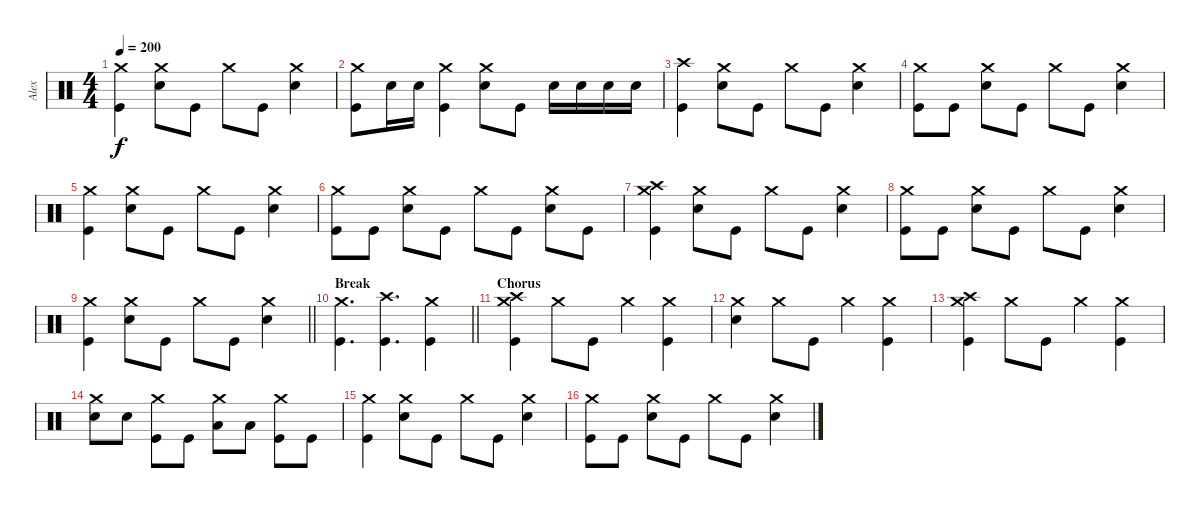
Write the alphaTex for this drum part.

\track ("Alex" "Alex") {instrument percussion}
\staff {score}
\articulation defaults
\ts (4 4)
\tempo 200
\clef neutral
\ks c
("Crash medium (hit)" "Kick (hit)").4{dy f} ("Crash medium (hit)" "Snare (hit) 2").8 "Kick (hit)".8 "Crash medium (hit)".8 "Kick (hit)".8 ("Crash medium (hit)" "Snare (hit) 2").4 |
("Crash medium (hit)" "Kick (hit)").8 "Snare (hit) 2".16 "Snare (hit) 2".16 ("Crash medium (hit)" "Kick (hit)").4 ("Crash medium (hit)" "Snare (hit) 2").8 "Kick (hit)".8 "Snare (hit) 2".16 "Snare (hit) 2".16 "Snare (hit) 2".16 "Snare (hit) 2".16 |
("Crash high (hit)" "Kick (hit)").4 ("Crash medium (hit)" "Snare (hit) 2").8 "Kick (hit)".8 "Crash medium (hit)".8 "Kick (hit)".8 ("Crash medium (hit)" "Snare (hit) 2").4 |
("Crash medium (hit)" "Kick (hit)").8 "Kick (hit)".8 ("Crash medium (hit)" "Snare (hit) 2").8 "Kick (hit)".8 "Crash medium (hit)".8 "Kick (hit)".8 ("Crash medium (hit)" "Snare (hit) 2").4 |
("Crash medium (hit)" "Kick (hit)").4 ("Crash medium (hit)" "Snare (hit) 2").8 "Kick (hit)".8 "Crash medium (hit)".8 "Kick (hit)".8 ("Crash medium (hit)" "Snare (hit) 2").4 |
("Crash medium (hit)" "Kick (hit)").8 "Kick (hit)".8 ("Crash medium (hit)" "Snare (hit) 2").8 "Kick (hit)".8 "Crash medium (hit)".8 "Kick (hit)".8 ("Crash medium (hit)" "Snare (hit) 2").8 "Kick (hit)".8 |
("Crash high (hit)" "Crash medium (hit)" "Kick (hit)").4 ("Crash medium (hit)" "Snare (hit) 2").8 "Kick (hit)".8 "Crash medium (hit)".8 "Kick (hit)".8 ("Crash medium (hit)" "Snare (hit) 2").4 |
("Crash medium (hit)" "Kick (hit)").8 "Kick (hit)".8 ("Crash medium (hit)" "Snare (hit) 2").8 "Kick (hit)".8 "Crash medium (hit)".8 "Kick (hit)".8 ("Crash medium (hit)" "Snare (hit) 2").4 |
\barLineRight lightlight
("Crash medium (hit)" "Kick (hit)").4 ("Crash medium (hit)" "Snare (hit) 2").8 "Kick (hit)".8 "Crash medium (hit)".8 "Kick (hit)".8 ("Crash medium (hit)" "Snare (hit) 2").4 |
\section ("" "Break")
\barLineRight lightlight
("Crash medium (hit)" "Kick (hit)").4{d} ("Crash high (hit)" "Kick (hit)").4{d} ("Crash medium (hit)" "Kick (hit)").4 |
\section ("" "Chorus")
("Crash medium (hit)" "Crash high (hit)" "Kick (hit)").4 "Crash medium (hit)".8 "Kick (hit)".8 "Crash medium (hit)".4 ("Crash medium (hit)" "Kick (hit)").4 |
("Crash medium (hit)" "Snare (hit) 2").4 "Crash medium (hit)".8 "Kick (hit)".8 "Crash medium (hit)".4 ("Crash medium (hit)" "Kick (hit)").4 |
("Crash medium (hit)" "Crash high (hit)" "Kick (hit)").4 "Crash medium (hit)".8 "Kick (hit)".8 "Crash medium (hit)".4 ("Crash medium (hit)" "Kick (hit)").4 |
("Crash medium (hit)" "Snare (hit) 2").8 "Snare (hit) 2".8 ("Crash medium (hit)" "Kick (hit)").8 "Kick (hit)".8 ("Crash medium (hit)" "Low Tom (hit)").8 "Low Tom (hit)".8 ("Crash medium (hit)" "Kick (hit)").8 "Kick (hit)".8 |
("Crash medium (hit)" "Kick (hit)").4 ("Crash medium (hit)" "Snare (hit) 2").8 "Kick (hit)".8 "Crash medium (hit)".8 "Kick (hit)".8 ("Crash medium (hit)" "Snare (hit) 2").4 |
("Crash medium (hit)" "Kick (hit)").8 "Kick (hit)".8 ("Crash medium (hit)" "Snare (hit) 2").8 "Kick (hit)".8 "Crash medium (hit)".8 "Kick (hit)".8 ("Crash medium (hit)" "Snare (hit) 2").4
